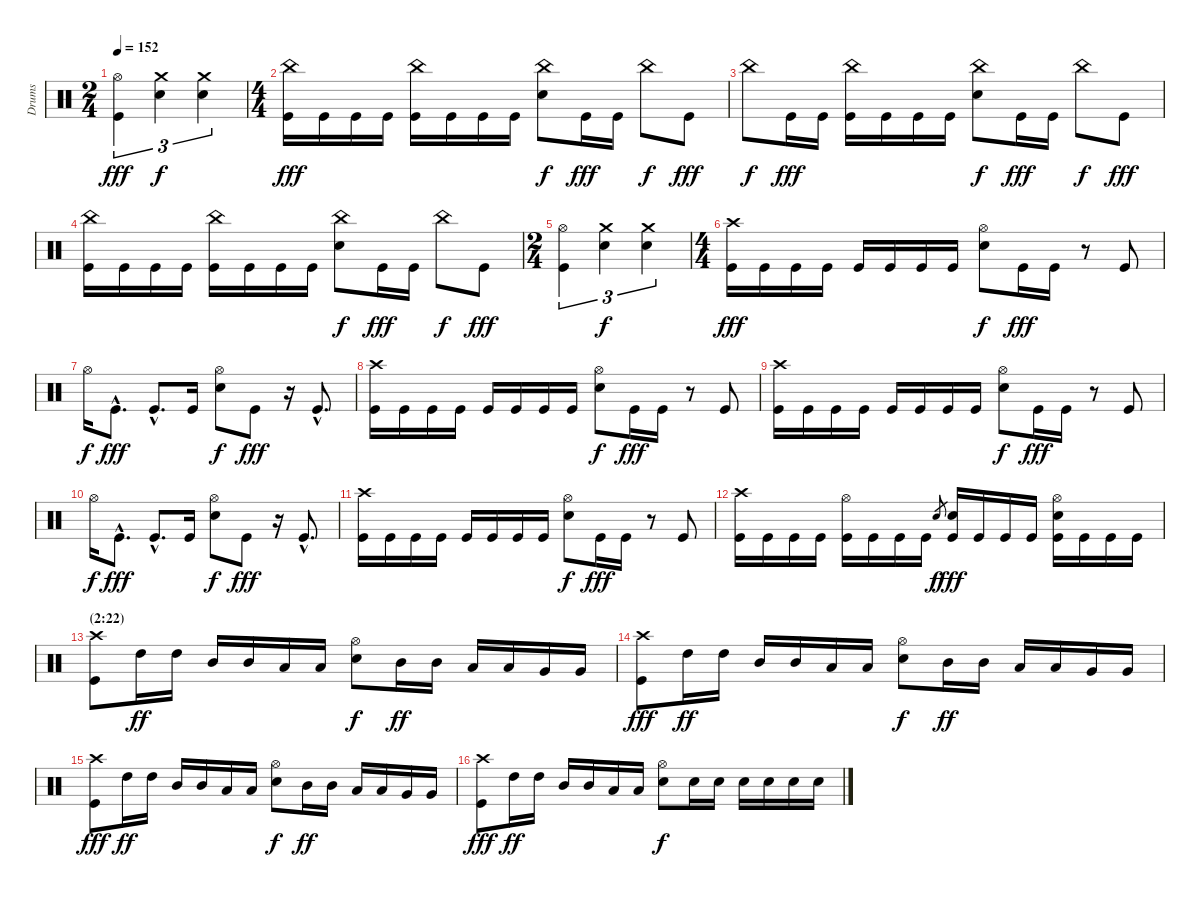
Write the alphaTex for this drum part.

\track ("Drums" "Drums") {instrument percussion}
\staff {score}
\articulation defaults
\ts (2 4)
\tempo 152
\clef neutral
\ks c
("Hi-Hat (open)" "Kick (hit)").4{tu (3 2) dy fff} ("Crash medium (hit)" "Snare (hit) 2").4{tu (3 2) dy f} ("Crash medium (hit)" "Snare (hit) 2").4{tu (3 2)} |
\ts (4 4)
("China (hit)" "Kick (hit)").16{dy fff} "Kick (hit)".16 "Kick (hit)".16 "Kick (hit)".16 ("China (hit)" "Kick (hit)").16 "Kick (hit)".16 "Kick (hit)".16 "Kick (hit)".16 ("China (hit)" "Snare (hit) 2").8{dy f} "Kick (hit)".16{dy fff} "Kick (hit)".16 "China (hit)".8{dy f} "Kick (hit)".8{dy fff} |
"China (hit)".8{dy f} "Kick (hit)".16{dy fff} "Kick (hit)".16 ("China (hit)" "Kick (hit)").16 "Kick (hit)".16 "Kick (hit)".16 "Kick (hit)".16 ("China (hit)" "Snare (hit) 2").8{dy f} "Kick (hit)".16{dy fff} "Kick (hit)".16 "China (hit)".8{dy f} "Kick (hit)".8{dy fff} |
("China (hit)" "Kick (hit)").16 "Kick (hit)".16 "Kick (hit)".16 "Kick (hit)".16 ("China (hit)" "Kick (hit)").16 "Kick (hit)".16 "Kick (hit)".16 "Kick (hit)".16 ("China (hit)" "Snare (hit) 2").8{dy f} "Kick (hit)".16{dy fff} "Kick (hit)".16 "China (hit)".8{dy f} "Kick (hit)".8{dy fff} |
\ts (2 4)
("Hi-Hat (open)" "Kick (hit)").4{tu (3 2)} ("Crash medium (hit)" "Snare (hit) 2").4{tu (3 2) dy f} ("Crash medium (hit)" "Snare (hit) 2").4{tu (3 2)} |
\ts (4 4)
("Crash high (hit)" "Kick (hit)").16{dy fff} "Kick (hit)".16 "Kick (hit)".16 "Kick (hit)".16 "Kick (hit)".16 "Kick (hit)".16 "Kick (hit)".16 "Kick (hit)".16 ("Hi-Hat (open)" "Snare (hit) 2").8{dy f} "Kick (hit)".16{dy fff} "Kick (hit)".16 r.8 "Kick (hit)".8 |
"Hi-Hat (open)".16{dy f} "Kick (hit)"{hac}.8{d dy fff} "Kick (hit)"{hac}.8{d} "Kick (hit)".16 ("Hi-Hat (open)" "Snare (hit) 2").8{dy f} "Kick (hit)".8{dy fff} r.16 "Kick (hit)"{hac}.8{d} |
("Crash high (hit)" "Kick (hit)").16 "Kick (hit)".16 "Kick (hit)".16 "Kick (hit)".16 "Kick (hit)".16 "Kick (hit)".16 "Kick (hit)".16 "Kick (hit)".16 ("Hi-Hat (open)" "Snare (hit) 2").8{dy f} "Kick (hit)".16{dy fff} "Kick (hit)".16 r.8 "Kick (hit)".8 |
("Crash high (hit)" "Kick (hit)").16 "Kick (hit)".16 "Kick (hit)".16 "Kick (hit)".16 "Kick (hit)".16 "Kick (hit)".16 "Kick (hit)".16 "Kick (hit)".16 ("Hi-Hat (open)" "Snare (hit) 2").8{dy f} "Kick (hit)".16{dy fff} "Kick (hit)".16 r.8 "Kick (hit)".8 |
"Hi-Hat (open)".16{dy f} "Kick (hit)"{hac}.8{d dy fff} "Kick (hit)"{hac}.8{d} "Kick (hit)".16 ("Hi-Hat (open)" "Snare (hit) 2").8{dy f} "Kick (hit)".8{dy fff} r.16 "Kick (hit)"{hac}.8{d} |
("Crash high (hit)" "Kick (hit)").16 "Kick (hit)".16 "Kick (hit)".16 "Kick (hit)".16 "Kick (hit)".16 "Kick (hit)".16 "Kick (hit)".16 "Kick (hit)".16 ("Hi-Hat (open)" "Snare (hit) 2").8{dy f} "Kick (hit)".16{dy fff} "Kick (hit)".16 r.8 "Kick (hit)".8 |
("Crash high (hit)" "Kick (hit)").16 "Kick (hit)".16 "Kick (hit)".16 "Kick (hit)".16 ("Hi-Hat (open)" "Kick (hit)").16 "Kick (hit)".16 "Kick (hit)".16 "Kick (hit)".16 "Snare (hit) 2".8{gr dy f} ("Snare (hit) 2" "Kick (hit)").16{dy fff} "Kick (hit)".16 "Kick (hit)".16 "Kick (hit)".16 ("Hi-Hat (open)" "Snare (hit) 2" "Kick (hit)").16 "Kick (hit)".16 "Kick (hit)".16 "Kick (hit)".16 |
\section ("" "(2:22)")
("Crash high (hit)" "Kick (hit)").8 "High Tom (hit)".16{dy ff} "High Tom (hit)".16 "Mid Tom (hit)".16 "Mid Tom (hit)".16 "Low Tom (hit)".16 "Low Tom (hit)".16 ("Hi-Hat (open)" "Snare (hit) 2").8{dy f} "Mid Tom (hit)".16{dy ff} "Mid Tom (hit)".16 "Low Tom (hit)".16 "Low Tom (hit)".16 "Very Low Tom (hit)".16 "Very Low Tom (hit)".16 |
("Crash high (hit)" "Kick (hit)").8{dy fff} "High Tom (hit)".16{dy ff} "High Tom (hit)".16 "Mid Tom (hit)".16 "Mid Tom (hit)".16 "Low Tom (hit)".16 "Low Tom (hit)".16 ("Hi-Hat (open)" "Snare (hit) 2").8{dy f} "Mid Tom (hit)".16{dy ff} "Mid Tom (hit)".16 "Low Tom (hit)".16 "Low Tom (hit)".16 "Very Low Tom (hit)".16 "Very Low Tom (hit)".16 |
("Crash high (hit)" "Kick (hit)").8{dy fff} "High Tom (hit)".16{dy ff} "High Tom (hit)".16 "Mid Tom (hit)".16 "Mid Tom (hit)".16 "Low Tom (hit)".16 "Low Tom (hit)".16 ("Hi-Hat (open)" "Snare (hit) 2").8{dy f} "Mid Tom (hit)".16{dy ff} "Mid Tom (hit)".16 "Low Tom (hit)".16 "Low Tom (hit)".16 "Very Low Tom (hit)".16 "Very Low Tom (hit)".16 |
("Crash high (hit)" "Kick (hit)").8{dy fff} "High Tom (hit)".16{dy ff} "High Tom (hit)".16 "Mid Tom (hit)".16 "Mid Tom (hit)".16 "Low Tom (hit)".16 "Low Tom (hit)".16 ("Hi-Hat (open)" "Snare (hit) 2").8{dy f} "Snare (hit) 2".16 "Snare (hit) 2".16 "Snare (hit) 2".16 "Snare (hit) 2".16 "Snare (hit) 2".16 "Snare (hit) 2".16
